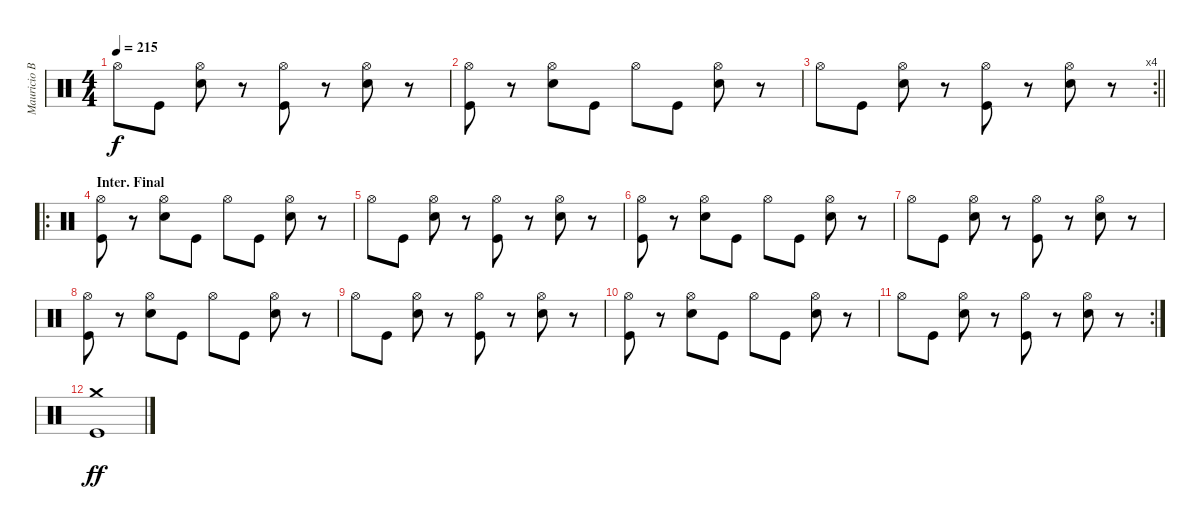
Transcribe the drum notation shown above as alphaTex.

\track ("Mauricio Basualto" "Mauricio B") {instrument percussion}
\staff {score}
\articulation defaults
\ts (4 4)
\tempo 215
\clef neutral
\ks c "Hi-Hat (open)".8{dy f} "Kick (hit)".8
("Hi-Hat (open)" "Electric Snare (hit)").8 r.8 ("Hi-Hat (open)" "Kick (hit)").8 r.8 ("Hi-Hat (open)" "Electric Snare (hit)").8 r.8 |
("Hi-Hat (open)" "Kick (hit)").8 r.8 ("Hi-Hat (open)" "Electric Snare (hit)").8 "Kick (hit)".8 "Hi-Hat (open)".8 "Kick (hit)".8 ("Hi-Hat (open)" "Electric Snare (hit)").8 r.8 |
\rc 4
\barLineRight lightlight "Hi-Hat (open)".8 "Kick (hit)".8
("Hi-Hat (open)" "Electric Snare (hit)").8 r.8 ("Hi-Hat (open)" "Kick (hit)").8 r.8 ("Hi-Hat (open)" "Electric Snare (hit)").8 r.8 |
\ro
\section ("" "Inter. Final")
("Hi-Hat (open)" "Kick (hit)").8 r.8 ("Hi-Hat (open)" "Electric Snare (hit)").8 "Kick (hit)".8 "Hi-Hat (open)".8 "Kick (hit)".8 ("Hi-Hat (open)" "Electric Snare (hit)").8 r.8 |
"Hi-Hat (open)".8 "Kick (hit)".8 ("Hi-Hat (open)" "Electric Snare (hit)").8 r.8 ("Hi-Hat (open)" "Kick (hit)").8 r.8 ("Hi-Hat (open)" "Electric Snare (hit)").8 r.8 |
("Hi-Hat (open)" "Kick (hit)").8 r.8 ("Hi-Hat (open)" "Electric Snare (hit)").8 "Kick (hit)".8 "Hi-Hat (open)".8 "Kick (hit)".8 ("Hi-Hat (open)" "Electric Snare (hit)").8 r.8 |
"Hi-Hat (open)".8 "Kick (hit)".8 ("Hi-Hat (open)" "Electric Snare (hit)").8 r.8 ("Hi-Hat (open)" "Kick (hit)").8 r.8 ("Hi-Hat (open)" "Electric Snare (hit)").8 r.8 |
("Hi-Hat (open)" "Kick (hit)").8 r.8 ("Hi-Hat (open)" "Electric Snare (hit)").8 "Kick (hit)".8 "Hi-Hat (open)".8 "Kick (hit)".8 ("Hi-Hat (open)" "Electric Snare (hit)").8 r.8 |
"Hi-Hat (open)".8 "Kick (hit)".8 ("Hi-Hat (open)" "Electric Snare (hit)").8 r.8 ("Hi-Hat (open)" "Kick (hit)").8 r.8 ("Hi-Hat (open)" "Electric Snare (hit)").8 r.8 |
("Hi-Hat (open)" "Kick (hit)").8 r.8 ("Hi-Hat (open)" "Electric Snare (hit)").8 "Kick (hit)".8 "Hi-Hat (open)".8 "Kick (hit)".8 ("Hi-Hat (open)" "Electric Snare (hit)").8 r.8 |
\rc 2 "Hi-Hat (open)".8 "Kick (hit)".8
("Hi-Hat (open)" "Electric Snare (hit)").8 r.8 ("Hi-Hat (open)" "Kick (hit)").8 r.8 ("Hi-Hat (open)" "Electric Snare (hit)").8 r.8 |
("Kick (hit)" "Crash medium (hit)").1{dy ff}
